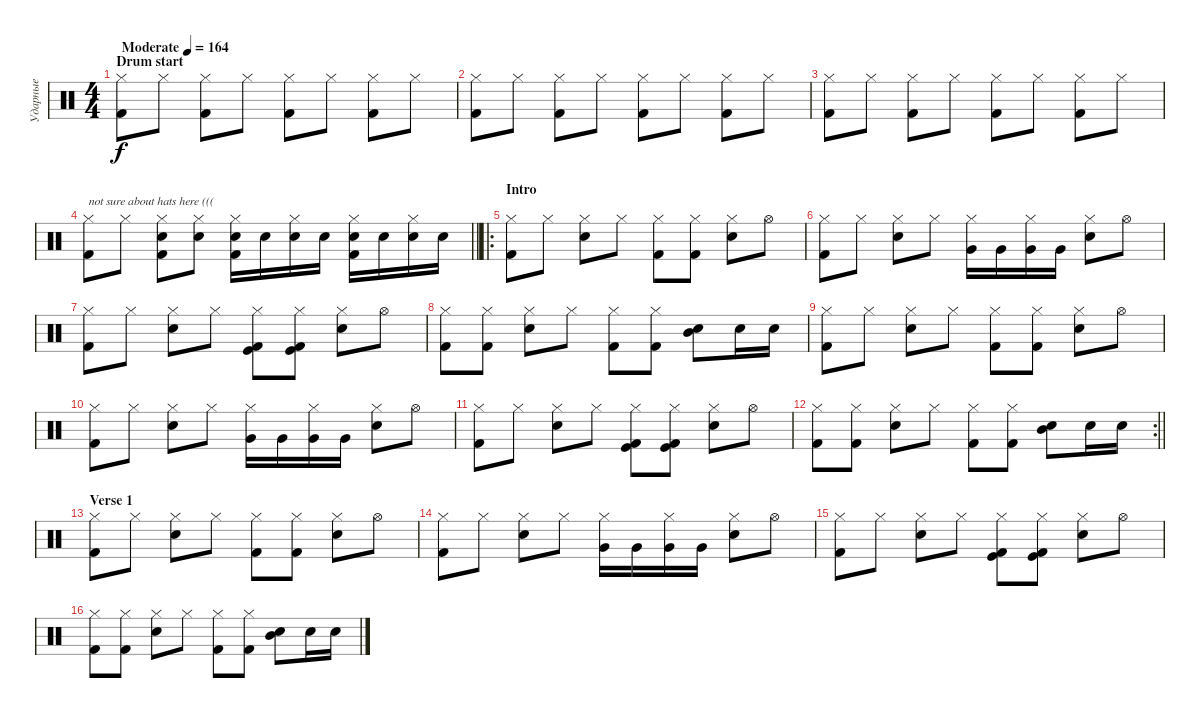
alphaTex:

\track ("Ударные" "Ударные") {instrument percussion}
\staff {score}
\articulation defaults
\ts (4 4)
\section ("" "Drum start")
\tempo (164 "Moderate")
\clef neutral
\ks c
("Hi-Hat (closed)" "Kick (hit) 2").8{dy f} "Hi-Hat (closed)".8 ("Hi-Hat (closed)" "Kick (hit) 2").8 "Hi-Hat (closed)".8 ("Hi-Hat (closed)" "Kick (hit) 2").8 "Hi-Hat (closed)".8 ("Hi-Hat (closed)" "Kick (hit) 2").8 "Hi-Hat (closed)".8 |
("Hi-Hat (closed)" "Kick (hit) 2").8 "Hi-Hat (closed)".8 ("Hi-Hat (closed)" "Kick (hit) 2").8 "Hi-Hat (closed)".8 ("Hi-Hat (closed)" "Kick (hit) 2").8 "Hi-Hat (closed)".8 ("Hi-Hat (closed)" "Kick (hit) 2").8 "Hi-Hat (closed)".8 |
("Hi-Hat (closed)" "Kick (hit) 2").8 "Hi-Hat (closed)".8 ("Hi-Hat (closed)" "Kick (hit) 2").8 "Hi-Hat (closed)".8 ("Hi-Hat (closed)" "Kick (hit) 2").8 "Hi-Hat (closed)".8 ("Hi-Hat (closed)" "Kick (hit) 2").8 "Hi-Hat (closed)".8 |
\barLineRight lightlight
("Hi-Hat (closed)" "Kick (hit) 2").8{txt "not sure about hats here ((("} "Hi-Hat (closed)".8 ("Hi-Hat (closed)" "Snare (hit) 2" "Kick (hit) 2").8 ("Hi-Hat (closed)" "Snare (hit) 2").8 ("Hi-Hat (closed)" "Snare (hit) 2" "Kick (hit) 2").16 "Snare (hit) 2".16 ("Hi-Hat (closed)" "Snare (hit) 2").16 "Snare (hit) 2".16 ("Hi-Hat (closed)" "Snare (hit) 2" "Kick (hit) 2").16 "Snare (hit) 2".16 ("Hi-Hat (closed)" "Snare (hit) 2").16 "Snare (hit) 2".16 |
\ro
\section ("" "Intro")
("Hi-Hat (closed)" "Kick (hit) 2").8 "Hi-Hat (closed)".8 ("Hi-Hat (closed)" "Snare (hit) 2").8 "Hi-Hat (closed)".8 ("Hi-Hat (closed)" "Kick (hit) 2").8 ("Hi-Hat (closed)" "Kick (hit) 2").8 ("Hi-Hat (closed)" "Snare (hit) 2").8 "Hi-Hat (open)".8 |
("Hi-Hat (closed)" "Kick (hit) 2").8 "Hi-Hat (closed)".8 ("Hi-Hat (closed)" "Snare (hit) 2").8 "Hi-Hat (closed)".8 ("Hi-Hat (closed)" "Very Low Tom (hit)").16 "Very Low Tom (hit)".16 ("Hi-Hat (closed)" "Very Low Tom (hit)").16 "Very Low Tom (hit)".16 ("Hi-Hat (closed)" "Snare (hit) 2").8 "Hi-Hat (open)".8 |
("Hi-Hat (closed)" "Kick (hit) 2").8 "Hi-Hat (closed)".8 ("Hi-Hat (closed)" "Snare (hit) 2").8 "Hi-Hat (closed)".8 ("Hi-Hat (closed)" "Kick (hit)" "Kick (hit) 2").8 ("Hi-Hat (closed)" "Kick (hit)" "Kick (hit) 2").8 ("Hi-Hat (closed)" "Snare (hit) 2").8 "Hi-Hat (open)".8 |
("Hi-Hat (closed)" "Kick (hit) 2").8 ("Hi-Hat (closed)" "Kick (hit) 2").8 ("Hi-Hat (closed)" "Snare (hit) 2").8 "Hi-Hat (closed)".8 ("Hi-Hat (closed)" "Kick (hit) 2").8 ("Hi-Hat (closed)" "Kick (hit) 2").8 ("Snare (hit) 2" "Mid Tom (hit)").8 "Snare (hit) 2".16 "Snare (hit) 2".16 |
("Hi-Hat (closed)" "Kick (hit) 2").8 "Hi-Hat (closed)".8 ("Hi-Hat (closed)" "Snare (hit) 2").8 "Hi-Hat (closed)".8 ("Hi-Hat (closed)" "Kick (hit) 2").8 ("Hi-Hat (closed)" "Kick (hit) 2").8 ("Hi-Hat (closed)" "Snare (hit) 2").8 "Hi-Hat (open)".8 |
("Hi-Hat (closed)" "Kick (hit) 2").8 "Hi-Hat (closed)".8 ("Hi-Hat (closed)" "Snare (hit) 2").8 "Hi-Hat (closed)".8 ("Hi-Hat (closed)" "Very Low Tom (hit)").16 "Very Low Tom (hit)".16 ("Hi-Hat (closed)" "Very Low Tom (hit)").16 "Very Low Tom (hit)".16 ("Hi-Hat (closed)" "Snare (hit) 2").8 "Hi-Hat (open)".8 |
("Hi-Hat (closed)" "Kick (hit) 2").8 "Hi-Hat (closed)".8 ("Hi-Hat (closed)" "Snare (hit) 2").8 "Hi-Hat (closed)".8 ("Hi-Hat (closed)" "Kick (hit)" "Kick (hit) 2").8 ("Hi-Hat (closed)" "Kick (hit)" "Kick (hit) 2").8 ("Hi-Hat (closed)" "Snare (hit) 2").8 "Hi-Hat (open)".8 |
\rc 2
\barLineRight lightlight
("Hi-Hat (closed)" "Kick (hit) 2").8 ("Hi-Hat (closed)" "Kick (hit) 2").8 ("Hi-Hat (closed)" "Snare (hit) 2").8 "Hi-Hat (closed)".8 ("Hi-Hat (closed)" "Kick (hit) 2").8 ("Hi-Hat (closed)" "Kick (hit) 2").8 ("Snare (hit) 2" "Mid Tom (hit)").8 "Snare (hit) 2".16 "Snare (hit) 2".16 |
\section ("" "Verse 1")
("Hi-Hat (closed)" "Kick (hit) 2").8 "Hi-Hat (closed)".8 ("Hi-Hat (closed)" "Snare (hit) 2").8 "Hi-Hat (closed)".8 ("Hi-Hat (closed)" "Kick (hit) 2").8 ("Hi-Hat (closed)" "Kick (hit) 2").8 ("Hi-Hat (closed)" "Snare (hit) 2").8 "Hi-Hat (open)".8 |
("Hi-Hat (closed)" "Kick (hit) 2").8 "Hi-Hat (closed)".8 ("Hi-Hat (closed)" "Snare (hit) 2").8 "Hi-Hat (closed)".8 ("Hi-Hat (closed)" "Very Low Tom (hit)").16 "Very Low Tom (hit)".16 ("Hi-Hat (closed)" "Very Low Tom (hit)").16 "Very Low Tom (hit)".16 ("Hi-Hat (closed)" "Snare (hit) 2").8 "Hi-Hat (open)".8 |
("Hi-Hat (closed)" "Kick (hit) 2").8 "Hi-Hat (closed)".8 ("Hi-Hat (closed)" "Snare (hit) 2").8 "Hi-Hat (closed)".8 ("Hi-Hat (closed)" "Kick (hit)" "Kick (hit) 2").8 ("Hi-Hat (closed)" "Kick (hit)" "Kick (hit) 2").8 ("Hi-Hat (closed)" "Snare (hit) 2").8 "Hi-Hat (open)".8 |
("Hi-Hat (closed)" "Kick (hit) 2").8 ("Hi-Hat (closed)" "Kick (hit) 2").8 ("Hi-Hat (closed)" "Snare (hit) 2").8 "Hi-Hat (closed)".8 ("Hi-Hat (closed)" "Kick (hit) 2").8 ("Hi-Hat (closed)" "Kick (hit) 2").8 ("Snare (hit) 2" "Mid Tom (hit)").8 "Snare (hit) 2".16 "Snare (hit) 2".16
